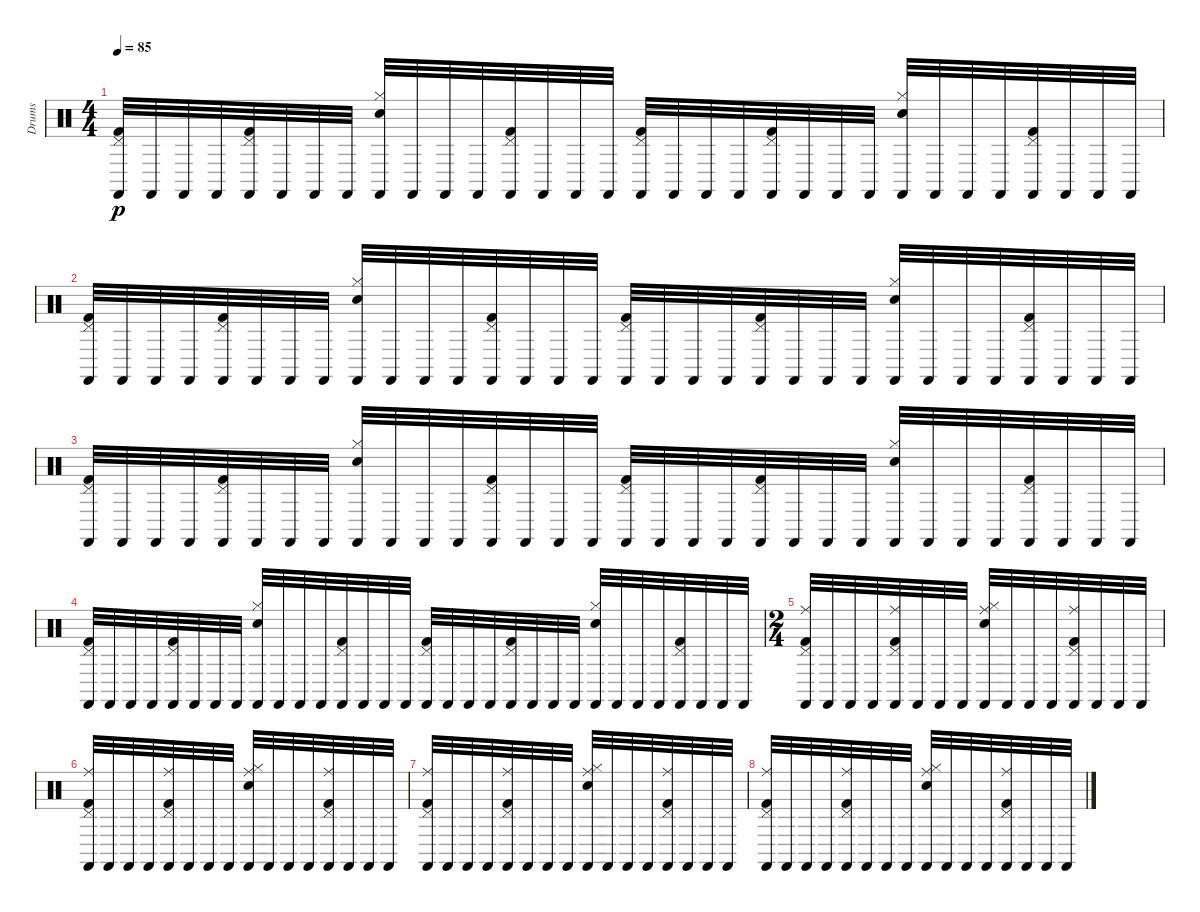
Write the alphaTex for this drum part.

\track ("Drums" "Drums") {instrument percussion}
\staff {score}
\articulation defaults
\ts (4 4)
\tempo 85
\clef neutral
\ks c
("Castanets (hit)" "Pedal Hi-Hat (hit)" "Kick (hit) 2").32{dy p} "Castanets (hit)".32 "Castanets (hit)".32 "Castanets (hit)".32 ("Castanets (hit)" "Pedal Hi-Hat (hit)" "Kick (hit) 2").32 "Castanets (hit)".32 "Castanets (hit)".32 "Castanets (hit)".32 ("Castanets (hit)" "Hi-Hat (closed)" "Electric Snare (hit)").32 "Castanets (hit)".32 "Castanets (hit)".32 "Castanets (hit)".32 ("Castanets (hit)" "Pedal Hi-Hat (hit)" "Kick (hit) 2").32 "Castanets (hit)".32 "Castanets (hit)".32 "Castanets (hit)".32 ("Castanets (hit)" "Pedal Hi-Hat (hit)" "Kick (hit) 2").32 "Castanets (hit)".32 "Castanets (hit)".32 "Castanets (hit)".32 ("Castanets (hit)" "Pedal Hi-Hat (hit)" "Kick (hit) 2").32 "Castanets (hit)".32 "Castanets (hit)".32 "Castanets (hit)".32 ("Castanets (hit)" "Hi-Hat (closed)" "Electric Snare (hit)").32 "Castanets (hit)".32 "Castanets (hit)".32 "Castanets (hit)".32 ("Castanets (hit)" "Pedal Hi-Hat (hit)" "Kick (hit) 2").32 "Castanets (hit)".32 "Castanets (hit)".32 "Castanets (hit)".32 |
("Castanets (hit)" "Pedal Hi-Hat (hit)" "Kick (hit) 2").32 "Castanets (hit)".32 "Castanets (hit)".32 "Castanets (hit)".32 ("Castanets (hit)" "Pedal Hi-Hat (hit)" "Kick (hit) 2").32 "Castanets (hit)".32 "Castanets (hit)".32 "Castanets (hit)".32 ("Castanets (hit)" "Hi-Hat (closed)" "Electric Snare (hit)").32 "Castanets (hit)".32 "Castanets (hit)".32 "Castanets (hit)".32 ("Castanets (hit)" "Pedal Hi-Hat (hit)" "Kick (hit) 2").32 "Castanets (hit)".32 "Castanets (hit)".32 "Castanets (hit)".32 ("Castanets (hit)" "Pedal Hi-Hat (hit)" "Kick (hit) 2").32 "Castanets (hit)".32 "Castanets (hit)".32 "Castanets (hit)".32 ("Castanets (hit)" "Pedal Hi-Hat (hit)" "Kick (hit) 2").32 "Castanets (hit)".32 "Castanets (hit)".32 "Castanets (hit)".32 ("Castanets (hit)" "Hi-Hat (closed)" "Electric Snare (hit)").32 "Castanets (hit)".32 "Castanets (hit)".32 "Castanets (hit)".32 ("Castanets (hit)" "Pedal Hi-Hat (hit)" "Kick (hit) 2").32 "Castanets (hit)".32 "Castanets (hit)".32 "Castanets (hit)".32 |
("Castanets (hit)" "Pedal Hi-Hat (hit)" "Kick (hit) 2").32 "Castanets (hit)".32 "Castanets (hit)".32 "Castanets (hit)".32 ("Castanets (hit)" "Pedal Hi-Hat (hit)" "Kick (hit) 2").32 "Castanets (hit)".32 "Castanets (hit)".32 "Castanets (hit)".32 ("Castanets (hit)" "Hi-Hat (closed)" "Electric Snare (hit)").32 "Castanets (hit)".32 "Castanets (hit)".32 "Castanets (hit)".32 ("Castanets (hit)" "Pedal Hi-Hat (hit)" "Kick (hit) 2").32 "Castanets (hit)".32 "Castanets (hit)".32 "Castanets (hit)".32 ("Castanets (hit)" "Pedal Hi-Hat (hit)" "Kick (hit) 2").32 "Castanets (hit)".32 "Castanets (hit)".32 "Castanets (hit)".32 ("Castanets (hit)" "Pedal Hi-Hat (hit)" "Kick (hit) 2").32 "Castanets (hit)".32 "Castanets (hit)".32 "Castanets (hit)".32 ("Castanets (hit)" "Hi-Hat (closed)" "Electric Snare (hit)").32 "Castanets (hit)".32 "Castanets (hit)".32 "Castanets (hit)".32 ("Castanets (hit)" "Pedal Hi-Hat (hit)" "Kick (hit) 2").32 "Castanets (hit)".32 "Castanets (hit)".32 "Castanets (hit)".32 |
("Castanets (hit)" "Pedal Hi-Hat (hit)" "Kick (hit) 2").32 "Castanets (hit)".32 "Castanets (hit)".32 "Castanets (hit)".32 ("Castanets (hit)" "Pedal Hi-Hat (hit)" "Kick (hit) 2").32 "Castanets (hit)".32 "Castanets (hit)".32 "Castanets (hit)".32 ("Castanets (hit)" "Hi-Hat (closed)" "Electric Snare (hit)").32 "Castanets (hit)".32 "Castanets (hit)".32 "Castanets (hit)".32 ("Castanets (hit)" "Pedal Hi-Hat (hit)" "Kick (hit) 2").32 "Castanets (hit)".32 "Castanets (hit)".32 "Castanets (hit)".32 ("Castanets (hit)" "Pedal Hi-Hat (hit)" "Kick (hit) 2").32 "Castanets (hit)".32 "Castanets (hit)".32 "Castanets (hit)".32 ("Castanets (hit)" "Pedal Hi-Hat (hit)" "Kick (hit) 2").32 "Castanets (hit)".32 "Castanets (hit)".32 "Castanets (hit)".32 ("Castanets (hit)" "Hi-Hat (closed)" "Electric Snare (hit)").32 "Castanets (hit)".32 "Castanets (hit)".32 "Castanets (hit)".32 ("Castanets (hit)" "Pedal Hi-Hat (hit)" "Kick (hit) 2").32 "Castanets (hit)".32 "Castanets (hit)".32 "Castanets (hit)".32 |
\ts (2 4)
("Ride (middle)" "Castanets (hit)" "Pedal Hi-Hat (hit)" "Kick (hit) 2").32 "Castanets (hit)".32 "Castanets (hit)".32 "Castanets (hit)".32 ("Ride (middle)" "Castanets (hit)" "Pedal Hi-Hat (hit)" "Kick (hit) 2").32 "Castanets (hit)".32 "Castanets (hit)".32 "Castanets (hit)".32 ("Ride (middle)" "Castanets (hit)" "Hi-Hat (closed)" "Electric Snare (hit)").32 "Castanets (hit)".32 "Castanets (hit)".32 "Castanets (hit)".32 ("Ride (middle)" "Castanets (hit)" "Pedal Hi-Hat (hit)" "Kick (hit) 2").32 "Castanets (hit)".32 "Castanets (hit)".32 "Castanets (hit)".32 |
("Ride (middle)" "Castanets (hit)" "Pedal Hi-Hat (hit)" "Kick (hit) 2").32 "Castanets (hit)".32 "Castanets (hit)".32 "Castanets (hit)".32 ("Ride (middle)" "Castanets (hit)" "Pedal Hi-Hat (hit)" "Kick (hit) 2").32 "Castanets (hit)".32 "Castanets (hit)".32 "Castanets (hit)".32 ("Ride (middle)" "Castanets (hit)" "Hi-Hat (closed)" "Electric Snare (hit)").32 "Castanets (hit)".32 "Castanets (hit)".32 "Castanets (hit)".32 ("Ride (middle)" "Castanets (hit)" "Pedal Hi-Hat (hit)" "Kick (hit) 2").32 "Castanets (hit)".32 "Castanets (hit)".32 "Castanets (hit)".32 |
("Ride (middle)" "Castanets (hit)" "Pedal Hi-Hat (hit)" "Kick (hit) 2").32 "Castanets (hit)".32 "Castanets (hit)".32 "Castanets (hit)".32 ("Ride (middle)" "Castanets (hit)" "Pedal Hi-Hat (hit)" "Kick (hit) 2").32 "Castanets (hit)".32 "Castanets (hit)".32 "Castanets (hit)".32 ("Ride (middle)" "Castanets (hit)" "Hi-Hat (closed)" "Electric Snare (hit)").32 "Castanets (hit)".32 "Castanets (hit)".32 "Castanets (hit)".32 ("Ride (middle)" "Castanets (hit)" "Pedal Hi-Hat (hit)" "Kick (hit) 2").32 "Castanets (hit)".32 "Castanets (hit)".32 "Castanets (hit)".32 |
("Ride (middle)" "Castanets (hit)" "Pedal Hi-Hat (hit)" "Kick (hit) 2").32 "Castanets (hit)".32 "Castanets (hit)".32 "Castanets (hit)".32 ("Ride (middle)" "Castanets (hit)" "Pedal Hi-Hat (hit)" "Kick (hit) 2").32 "Castanets (hit)".32 "Castanets (hit)".32 "Castanets (hit)".32 ("Ride (middle)" "Castanets (hit)" "Hi-Hat (closed)" "Electric Snare (hit)").32 "Castanets (hit)".32 "Castanets (hit)".32 "Castanets (hit)".32 ("Ride (middle)" "Castanets (hit)" "Pedal Hi-Hat (hit)" "Kick (hit) 2").32 "Castanets (hit)".32 "Castanets (hit)".32 "Castanets (hit)".32
